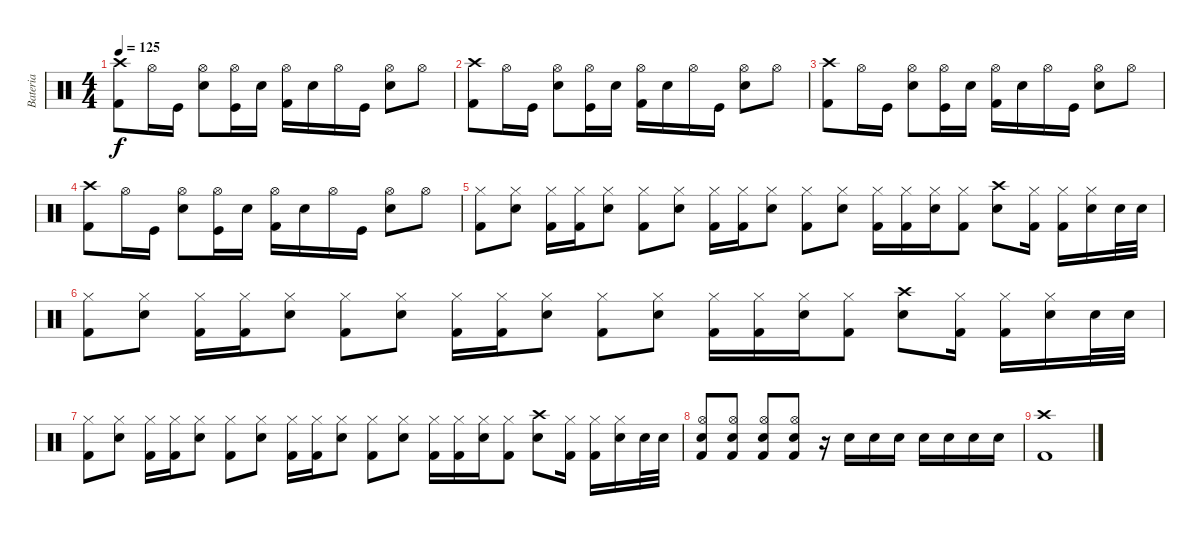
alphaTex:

\track ("Bateria" "Bateria") {instrument percussion}
\staff {score}
\articulation defaults
\ts (4 4)
\tempo 125
\clef neutral
\ks c
("Crash high (hit)" "Kick (hit) 2").8{dy f} "Hi-Hat (open)".16 "Kick (hit)".16 ("Hi-Hat (open)" "Electric Snare (hit)").8 ("Hi-Hat (open)" "Kick (hit)").16 "Electric Snare (hit)".16 ("Kick (hit) 2" "Hi-Hat (open)").16 "Electric Snare (hit)".16 "Hi-Hat (open)".16 "Kick (hit)".16 ("Hi-Hat (open)" "Electric Snare (hit)").8 "Hi-Hat (open)".8 |
("Crash high (hit)" "Kick (hit) 2").8 "Hi-Hat (open)".16 "Kick (hit)".16 ("Hi-Hat (open)" "Electric Snare (hit)").8 ("Hi-Hat (open)" "Kick (hit)").16 "Electric Snare (hit)".16 ("Kick (hit) 2" "Hi-Hat (open)").16 "Electric Snare (hit)".16 "Hi-Hat (open)".16 "Kick (hit)".16 ("Hi-Hat (open)" "Electric Snare (hit)").8 "Hi-Hat (open)".8 |
("Crash high (hit)" "Kick (hit) 2").8 "Hi-Hat (open)".16 "Kick (hit)".16 ("Hi-Hat (open)" "Electric Snare (hit)").8 ("Hi-Hat (open)" "Kick (hit)").16 "Electric Snare (hit)".16 ("Kick (hit) 2" "Hi-Hat (open)").16 "Electric Snare (hit)".16 "Hi-Hat (open)".16 "Kick (hit)".16 ("Hi-Hat (open)" "Electric Snare (hit)").8 "Hi-Hat (open)".8 |
("Crash high (hit)" "Kick (hit) 2").8 "Hi-Hat (open)".16 "Kick (hit)".16 ("Hi-Hat (open)" "Electric Snare (hit)").8 ("Hi-Hat (open)" "Kick (hit)").16 "Electric Snare (hit)".16 ("Kick (hit) 2" "Hi-Hat (open)").16 "Electric Snare (hit)".16 "Hi-Hat (open)".16 "Kick (hit)".16 ("Hi-Hat (open)" "Electric Snare (hit)").8 "Hi-Hat (open)".8 |
("Kick (hit) 2" "Hi-Hat (closed)").8 ("Snare (hit) 2" "Hi-Hat (closed)").8 ("Kick (hit) 2" "Hi-Hat (closed)").16 ("Kick (hit) 2" "Hi-Hat (closed)").16 ("Snare (hit) 2" "Hi-Hat (closed)").8 ("Kick (hit) 2" "Hi-Hat (closed)").8 ("Snare (hit) 2" "Hi-Hat (closed)").8 ("Kick (hit) 2" "Hi-Hat (closed)").16 ("Kick (hit) 2" "Hi-Hat (closed)").16 ("Snare (hit) 2" "Hi-Hat (closed)").8 ("Kick (hit) 2" "Hi-Hat (closed)").8 ("Snare (hit) 2" "Hi-Hat (closed)").8 ("Kick (hit) 2" "Hi-Hat (closed)").16 ("Kick (hit) 2" "Hi-Hat (closed)").16 ("Snare (hit) 2" "Hi-Hat (closed)").16 ("Kick (hit) 2" "Hi-Hat (closed)").8 ("Snare (hit) 2" "Crash high (hit)").8 ("Kick (hit) 2" "Hi-Hat (closed)").16 ("Kick (hit) 2" "Hi-Hat (closed)").16 ("Snare (hit) 2" "Hi-Hat (closed)").16 "Snare (hit) 2".32 "Snare (hit) 2".32 |
("Kick (hit) 2" "Hi-Hat (closed)").8 ("Snare (hit) 2" "Hi-Hat (closed)").8 ("Kick (hit) 2" "Hi-Hat (closed)").16 ("Kick (hit) 2" "Hi-Hat (closed)").16 ("Snare (hit) 2" "Hi-Hat (closed)").8 ("Kick (hit) 2" "Hi-Hat (closed)").8 ("Snare (hit) 2" "Hi-Hat (closed)").8 ("Kick (hit) 2" "Hi-Hat (closed)").16 ("Kick (hit) 2" "Hi-Hat (closed)").16 ("Snare (hit) 2" "Hi-Hat (closed)").8 ("Kick (hit) 2" "Hi-Hat (closed)").8 ("Snare (hit) 2" "Hi-Hat (closed)").8 ("Kick (hit) 2" "Hi-Hat (closed)").16 ("Kick (hit) 2" "Hi-Hat (closed)").16 ("Snare (hit) 2" "Hi-Hat (closed)").16 ("Kick (hit) 2" "Hi-Hat (closed)").8 ("Snare (hit) 2" "Crash high (hit)").8 ("Kick (hit) 2" "Hi-Hat (closed)").16 ("Kick (hit) 2" "Hi-Hat (closed)").16 ("Snare (hit) 2" "Hi-Hat (closed)").16 "Snare (hit) 2".32 "Snare (hit) 2".32 |
("Kick (hit) 2" "Hi-Hat (closed)").8 ("Snare (hit) 2" "Hi-Hat (closed)").8 ("Kick (hit) 2" "Hi-Hat (closed)").16 ("Kick (hit) 2" "Hi-Hat (closed)").16 ("Snare (hit) 2" "Hi-Hat (closed)").8 ("Kick (hit) 2" "Hi-Hat (closed)").8 ("Snare (hit) 2" "Hi-Hat (closed)").8 ("Kick (hit) 2" "Hi-Hat (closed)").16 ("Kick (hit) 2" "Hi-Hat (closed)").16 ("Snare (hit) 2" "Hi-Hat (closed)").8 ("Kick (hit) 2" "Hi-Hat (closed)").8 ("Snare (hit) 2" "Hi-Hat (closed)").8 ("Kick (hit) 2" "Hi-Hat (closed)").16 ("Kick (hit) 2" "Hi-Hat (closed)").16 ("Snare (hit) 2" "Hi-Hat (closed)").16 ("Kick (hit) 2" "Hi-Hat (closed)").8 ("Snare (hit) 2" "Crash high (hit)").8 ("Kick (hit) 2" "Hi-Hat (closed)").16 ("Kick (hit) 2" "Hi-Hat (closed)").16 ("Snare (hit) 2" "Hi-Hat (closed)").16 "Snare (hit) 2".32 "Snare (hit) 2".32 |
("Kick (hit) 2" "Snare (hit) 2" "Hi-Hat (open)").8 ("Kick (hit) 2" "Snare (hit) 2" "Hi-Hat (open)").8 ("Kick (hit) 2" "Snare (hit) 2" "Hi-Hat (open)").8 ("Kick (hit) 2" "Snare (hit) 2" "Hi-Hat (open)").8 r.16 "Snare (hit) 2".16 "Snare (hit) 2".16 "Snare (hit) 2".16 "Snare (hit) 2".16 "Snare (hit) 2".16 "Snare (hit) 2".16 "Snare (hit) 2".16 |
("Kick (hit) 2" "Crash high (hit)").1
